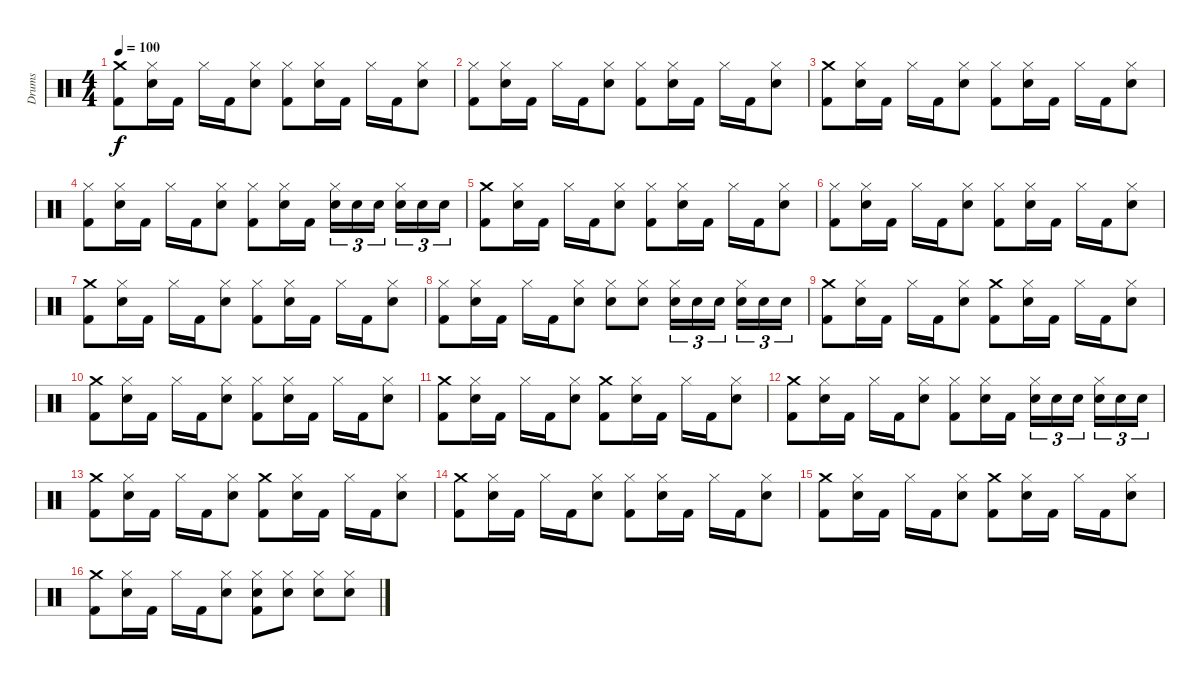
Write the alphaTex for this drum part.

\track ("Drums" "Drums") {instrument percussion}
\staff {score}
\articulation defaults
\ts (4 4)
\tempo 100
\clef neutral
\ks c
("Crash medium (hit)" "Kick (hit) 2").8{dy f} ("Hi-Hat (closed)" "Snare (hit) 2").16 "Kick (hit) 2".16 "Hi-Hat (closed)".16 "Kick (hit) 2".16 ("Hi-Hat (closed)" "Snare (hit) 2").8 ("Hi-Hat (closed)" "Kick (hit) 2").8 ("Hi-Hat (closed)" "Snare (hit) 2").16 "Kick (hit) 2".16 "Hi-Hat (closed)".16 "Kick (hit) 2".16 ("Hi-Hat (closed)" "Snare (hit) 2").8 |
("Hi-Hat (closed)" "Kick (hit) 2").8 ("Hi-Hat (closed)" "Snare (hit) 2").16 "Kick (hit) 2".16 "Hi-Hat (closed)".16 "Kick (hit) 2".16 ("Hi-Hat (closed)" "Snare (hit) 2").8 ("Hi-Hat (closed)" "Kick (hit) 2").8 ("Hi-Hat (closed)" "Snare (hit) 2").16 "Kick (hit) 2".16 "Hi-Hat (closed)".16 "Kick (hit) 2".16 ("Hi-Hat (closed)" "Snare (hit) 2").8 |
("Crash medium (hit)" "Kick (hit) 2").8 ("Hi-Hat (closed)" "Snare (hit) 2").16 "Kick (hit) 2".16 "Hi-Hat (closed)".16 "Kick (hit) 2".16 ("Hi-Hat (closed)" "Snare (hit) 2").8 ("Hi-Hat (closed)" "Kick (hit) 2").8 ("Hi-Hat (closed)" "Snare (hit) 2").16 "Kick (hit) 2".16 "Hi-Hat (closed)".16 "Kick (hit) 2".16 ("Hi-Hat (closed)" "Snare (hit) 2").8 |
("Hi-Hat (closed)" "Kick (hit) 2").8 ("Hi-Hat (closed)" "Snare (hit) 2").16 "Kick (hit) 2".16 "Hi-Hat (closed)".16 "Kick (hit) 2".16 ("Hi-Hat (closed)" "Snare (hit) 2").8 ("Hi-Hat (closed)" "Kick (hit) 2").8 ("Hi-Hat (closed)" "Snare (hit) 2").16 "Kick (hit) 2".16 ("Snare (hit) 2" "Hi-Hat (closed)").16{tu (3 2)} "Snare (hit) 2".16{tu (3 2)} "Snare (hit) 2".16{tu (3 2)} ("Snare (hit) 2" "Hi-Hat (closed)").16{tu (3 2)} "Snare (hit) 2".16{tu (3 2)} "Snare (hit) 2".16{tu (3 2)} |
("Crash medium (hit)" "Kick (hit) 2").8 ("Hi-Hat (closed)" "Snare (hit) 2").16 "Kick (hit) 2".16 "Hi-Hat (closed)".16 "Kick (hit) 2".16 ("Hi-Hat (closed)" "Snare (hit) 2").8 ("Hi-Hat (closed)" "Kick (hit) 2").8 ("Hi-Hat (closed)" "Snare (hit) 2").16 "Kick (hit) 2".16 "Hi-Hat (closed)".16 "Kick (hit) 2".16 ("Hi-Hat (closed)" "Snare (hit) 2").8 |
("Hi-Hat (closed)" "Kick (hit) 2").8 ("Hi-Hat (closed)" "Snare (hit) 2").16 "Kick (hit) 2".16 "Hi-Hat (closed)".16 "Kick (hit) 2".16 ("Hi-Hat (closed)" "Snare (hit) 2").8 ("Hi-Hat (closed)" "Kick (hit) 2").8 ("Hi-Hat (closed)" "Snare (hit) 2").16 "Kick (hit) 2".16 "Hi-Hat (closed)".16 "Kick (hit) 2".16 ("Hi-Hat (closed)" "Snare (hit) 2").8 |
("Crash medium (hit)" "Kick (hit) 2").8 ("Hi-Hat (closed)" "Snare (hit) 2").16 "Kick (hit) 2".16 "Hi-Hat (closed)".16 "Kick (hit) 2".16 ("Hi-Hat (closed)" "Snare (hit) 2").8 ("Hi-Hat (closed)" "Kick (hit) 2").8 ("Hi-Hat (closed)" "Snare (hit) 2").16 "Kick (hit) 2".16 "Hi-Hat (closed)".16 "Kick (hit) 2".16 ("Hi-Hat (closed)" "Snare (hit) 2").8 |
("Hi-Hat (closed)" "Kick (hit) 2").8 ("Hi-Hat (closed)" "Snare (hit) 2").16 "Kick (hit) 2".16 "Hi-Hat (closed)".16 "Kick (hit) 2".16 ("Hi-Hat (closed)" "Snare (hit) 2").8 ("Hi-Hat (closed)" "Snare (hit) 2").8 ("Hi-Hat (closed)" "Snare (hit) 2").8 ("Snare (hit) 2" "Hi-Hat (closed)").16{tu (3 2)} "Snare (hit) 2".16{tu (3 2)} "Snare (hit) 2".16{tu (3 2)} ("Snare (hit) 2" "Hi-Hat (closed)").16{tu (3 2)} "Snare (hit) 2".16{tu (3 2)} "Snare (hit) 2".16{tu (3 2)} |
("Crash medium (hit)" "Kick (hit) 2").8 ("Hi-Hat (closed)" "Snare (hit) 2").16 "Kick (hit) 2".16 "Hi-Hat (closed)".16 "Kick (hit) 2".16 ("Hi-Hat (closed)" "Snare (hit) 2").8 ("Crash medium (hit)" "Kick (hit) 2").8 ("Hi-Hat (closed)" "Snare (hit) 2").16 "Kick (hit) 2".16 "Hi-Hat (closed)".16 "Kick (hit) 2".16 ("Hi-Hat (closed)" "Snare (hit) 2").8 |
("Crash medium (hit)" "Kick (hit) 2").8 ("Hi-Hat (closed)" "Snare (hit) 2").16 "Kick (hit) 2".16 "Hi-Hat (closed)".16 "Kick (hit) 2".16 ("Hi-Hat (closed)" "Snare (hit) 2").8 ("Hi-Hat (closed)" "Kick (hit) 2").8 ("Hi-Hat (closed)" "Snare (hit) 2").16 "Kick (hit) 2".16 "Hi-Hat (closed)".16 "Kick (hit) 2".16 ("Hi-Hat (closed)" "Snare (hit) 2").8 |
("Crash medium (hit)" "Kick (hit) 2").8 ("Hi-Hat (closed)" "Snare (hit) 2").16 "Kick (hit) 2".16 "Hi-Hat (closed)".16 "Kick (hit) 2".16 ("Hi-Hat (closed)" "Snare (hit) 2").8 ("Crash medium (hit)" "Kick (hit) 2").8 ("Hi-Hat (closed)" "Snare (hit) 2").16 "Kick (hit) 2".16 "Hi-Hat (closed)".16 "Kick (hit) 2".16 ("Hi-Hat (closed)" "Snare (hit) 2").8 |
("Crash medium (hit)" "Kick (hit) 2").8 ("Hi-Hat (closed)" "Snare (hit) 2").16 "Kick (hit) 2".16 "Hi-Hat (closed)".16 "Kick (hit) 2".16 ("Hi-Hat (closed)" "Snare (hit) 2").8 ("Hi-Hat (closed)" "Kick (hit) 2").8 ("Hi-Hat (closed)" "Snare (hit) 2").16 "Kick (hit) 2".16 ("Snare (hit) 2" "Hi-Hat (closed)").16{tu (3 2)} "Snare (hit) 2".16{tu (3 2)} "Snare (hit) 2".16{tu (3 2)} ("Snare (hit) 2" "Hi-Hat (closed)").16{tu (3 2)} "Snare (hit) 2".16{tu (3 2)} "Snare (hit) 2".16{tu (3 2)} |
("Crash medium (hit)" "Kick (hit) 2").8 ("Hi-Hat (closed)" "Snare (hit) 2").16 "Kick (hit) 2".16 "Hi-Hat (closed)".16 "Kick (hit) 2".16 ("Hi-Hat (closed)" "Snare (hit) 2").8 ("Crash medium (hit)" "Kick (hit) 2").8 ("Hi-Hat (closed)" "Snare (hit) 2").16 "Kick (hit) 2".16 "Hi-Hat (closed)".16 "Kick (hit) 2".16 ("Hi-Hat (closed)" "Snare (hit) 2").8 |
("Crash medium (hit)" "Kick (hit) 2").8 ("Hi-Hat (closed)" "Snare (hit) 2").16 "Kick (hit) 2".16 "Hi-Hat (closed)".16 "Kick (hit) 2".16 ("Hi-Hat (closed)" "Snare (hit) 2").8 ("Hi-Hat (closed)" "Kick (hit) 2").8 ("Hi-Hat (closed)" "Snare (hit) 2").16 "Kick (hit) 2".16 "Hi-Hat (closed)".16 "Kick (hit) 2".16 ("Hi-Hat (closed)" "Snare (hit) 2").8 |
("Crash medium (hit)" "Kick (hit) 2").8 ("Hi-Hat (closed)" "Snare (hit) 2").16 "Kick (hit) 2".16 "Hi-Hat (closed)".16 "Kick (hit) 2".16 ("Hi-Hat (closed)" "Snare (hit) 2").8 ("Crash medium (hit)" "Kick (hit) 2").8 ("Hi-Hat (closed)" "Snare (hit) 2").16 "Kick (hit) 2".16 "Hi-Hat (closed)".16 "Kick (hit) 2".16 ("Hi-Hat (closed)" "Snare (hit) 2").8 |
("Crash medium (hit)" "Kick (hit) 2").8 ("Hi-Hat (closed)" "Snare (hit) 2").16 "Kick (hit) 2".16 "Hi-Hat (closed)".16 "Kick (hit) 2".16 ("Hi-Hat (closed)" "Snare (hit) 2").8 ("Kick (hit) 2" "Hi-Hat (closed)" "Snare (hit) 2").8 ("Snare (hit) 2" "Hi-Hat (closed)").8 ("Snare (hit) 2" "Hi-Hat (closed)").8 ("Snare (hit) 2" "Hi-Hat (closed)").8
